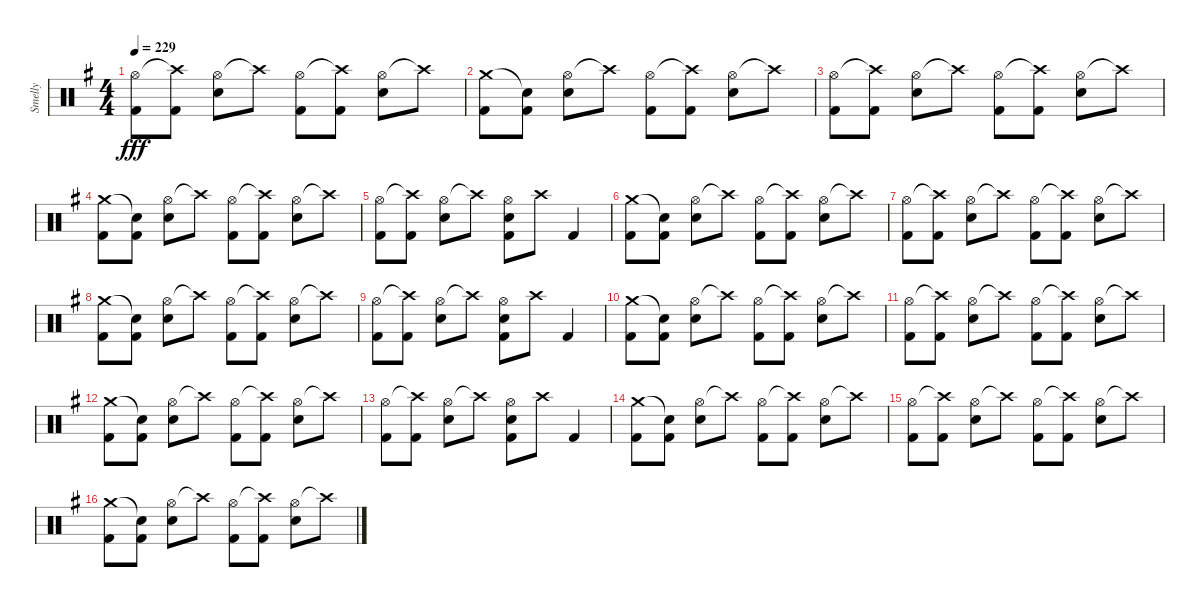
\track ("Smelly" "Smelly") {instrument percussion}
\staff {score}
\articulation defaults
\ts (4 4)
\tempo 229
\clef neutral
\ks eminor
("Hi-Hat (open)" "Kick (hit) 2").8{dy fff} ("Crash high (hit)"{t} "Kick (hit) 2").8 ("Hi-Hat (open)" "Electric Snare (hit)").8 "Crash high (hit)"{t}.8 ("Hi-Hat (open)" "Kick (hit) 2").8 ("Crash high (hit)"{t} "Kick (hit) 2").8 ("Hi-Hat (open)" "Electric Snare (hit)").8 "Crash high (hit)"{t}.8 |
("Crash medium (hit)" "Kick (hit) 2").8 ("Snare (hit)"{t} "Kick (hit) 2").8 ("Hi-Hat (open)" "Electric Snare (hit)").8 "Crash high (hit)"{t}.8 ("Hi-Hat (open)" "Kick (hit) 2").8 ("Crash high (hit)"{t} "Kick (hit) 2").8 ("Hi-Hat (open)" "Electric Snare (hit)").8 "Crash high (hit)"{t}.8 |
("Hi-Hat (open)" "Kick (hit) 2").8 ("Crash high (hit)"{t} "Kick (hit) 2").8 ("Hi-Hat (open)" "Electric Snare (hit)").8 "Crash high (hit)"{t}.8 ("Hi-Hat (open)" "Kick (hit) 2").8 ("Crash high (hit)"{t} "Kick (hit) 2").8 ("Hi-Hat (open)" "Electric Snare (hit)").8 "Crash high (hit)"{t}.8 |
("Crash medium (hit)" "Kick (hit) 2").8 ("Snare (hit)"{t} "Kick (hit) 2").8 ("Hi-Hat (open)" "Electric Snare (hit)").8 "Crash high (hit)"{t}.8 ("Hi-Hat (open)" "Kick (hit) 2").8 ("Crash high (hit)"{t} "Kick (hit) 2").8 ("Hi-Hat (open)" "Electric Snare (hit)").8 "Crash high (hit)"{t}.8 |
("Hi-Hat (open)" "Kick (hit) 2").8 ("Crash high (hit)"{t} "Kick (hit) 2").8 ("Hi-Hat (open)" "Electric Snare (hit)").8 "Crash high (hit)"{t}.8 ("Hi-Hat (open)" "Electric Snare (hit)" "Kick (hit) 2").8 "Crash high (hit)".8 "Kick (hit) 2".4 |
("Crash medium (hit)" "Kick (hit) 2").8 ("Snare (hit)"{t} "Kick (hit) 2").8 ("Hi-Hat (open)" "Electric Snare (hit)").8 "Crash high (hit)"{t}.8 ("Hi-Hat (open)" "Kick (hit) 2").8 ("Crash high (hit)"{t} "Kick (hit) 2").8 ("Hi-Hat (open)" "Electric Snare (hit)").8 "Crash high (hit)"{t}.8 |
("Hi-Hat (open)" "Kick (hit) 2").8 ("Crash high (hit)"{t} "Kick (hit) 2").8 ("Hi-Hat (open)" "Electric Snare (hit)").8 "Crash high (hit)"{t}.8 ("Hi-Hat (open)" "Kick (hit) 2").8 ("Crash high (hit)"{t} "Kick (hit) 2").8 ("Hi-Hat (open)" "Electric Snare (hit)").8 "Crash high (hit)"{t}.8 |
("Crash medium (hit)" "Kick (hit) 2").8 ("Snare (hit)"{t} "Kick (hit) 2").8 ("Hi-Hat (open)" "Electric Snare (hit)").8 "Crash high (hit)"{t}.8 ("Hi-Hat (open)" "Kick (hit) 2").8 ("Crash high (hit)"{t} "Kick (hit) 2").8 ("Hi-Hat (open)" "Electric Snare (hit)").8 "Crash high (hit)"{t}.8 |
("Hi-Hat (open)" "Kick (hit) 2").8 ("Crash high (hit)"{t} "Kick (hit) 2").8 ("Hi-Hat (open)" "Electric Snare (hit)").8 "Crash high (hit)"{t}.8 ("Hi-Hat (open)" "Electric Snare (hit)" "Kick (hit) 2").8 "Crash high (hit)".8 "Kick (hit) 2".4 |
("Crash medium (hit)" "Kick (hit) 2").8 ("Snare (hit)"{t} "Kick (hit) 2").8 ("Hi-Hat (open)" "Electric Snare (hit)").8 "Crash high (hit)"{t}.8 ("Hi-Hat (open)" "Kick (hit) 2").8 ("Crash high (hit)"{t} "Kick (hit) 2").8 ("Hi-Hat (open)" "Electric Snare (hit)").8 "Crash high (hit)"{t}.8 |
("Hi-Hat (open)" "Kick (hit) 2").8 ("Crash high (hit)"{t} "Kick (hit) 2").8 ("Hi-Hat (open)" "Electric Snare (hit)").8 "Crash high (hit)"{t}.8 ("Hi-Hat (open)" "Kick (hit) 2").8 ("Crash high (hit)"{t} "Kick (hit) 2").8 ("Hi-Hat (open)" "Electric Snare (hit)").8 "Crash high (hit)"{t}.8 |
("Crash medium (hit)" "Kick (hit) 2").8 ("Snare (hit)"{t} "Kick (hit) 2").8 ("Hi-Hat (open)" "Electric Snare (hit)").8 "Crash high (hit)"{t}.8 ("Hi-Hat (open)" "Kick (hit) 2").8 ("Crash high (hit)"{t} "Kick (hit) 2").8 ("Hi-Hat (open)" "Electric Snare (hit)").8 "Crash high (hit)"{t}.8 |
("Hi-Hat (open)" "Kick (hit) 2").8 ("Crash high (hit)"{t} "Kick (hit) 2").8 ("Hi-Hat (open)" "Electric Snare (hit)").8 "Crash high (hit)"{t}.8 ("Hi-Hat (open)" "Electric Snare (hit)" "Kick (hit) 2").8 "Crash high (hit)".8 "Kick (hit) 2".4 |
("Crash medium (hit)" "Kick (hit) 2").8 ("Snare (hit)"{t} "Kick (hit) 2").8 ("Hi-Hat (open)" "Electric Snare (hit)").8 "Crash high (hit)"{t}.8 ("Hi-Hat (open)" "Kick (hit) 2").8 ("Crash high (hit)"{t} "Kick (hit) 2").8 ("Hi-Hat (open)" "Electric Snare (hit)").8 "Crash high (hit)"{t}.8 |
("Hi-Hat (open)" "Kick (hit) 2").8 ("Crash high (hit)"{t} "Kick (hit) 2").8 ("Hi-Hat (open)" "Electric Snare (hit)").8 "Crash high (hit)"{t}.8 ("Hi-Hat (open)" "Kick (hit) 2").8 ("Crash high (hit)"{t} "Kick (hit) 2").8 ("Hi-Hat (open)" "Electric Snare (hit)").8 "Crash high (hit)"{t}.8 |
("Crash medium (hit)" "Kick (hit) 2").8 ("Snare (hit)"{t} "Kick (hit) 2").8 ("Hi-Hat (open)" "Electric Snare (hit)").8 "Crash high (hit)"{t}.8 ("Hi-Hat (open)" "Kick (hit) 2").8 ("Crash high (hit)"{t} "Kick (hit) 2").8 ("Hi-Hat (open)" "Electric Snare (hit)").8 "Crash high (hit)"{t}.8
